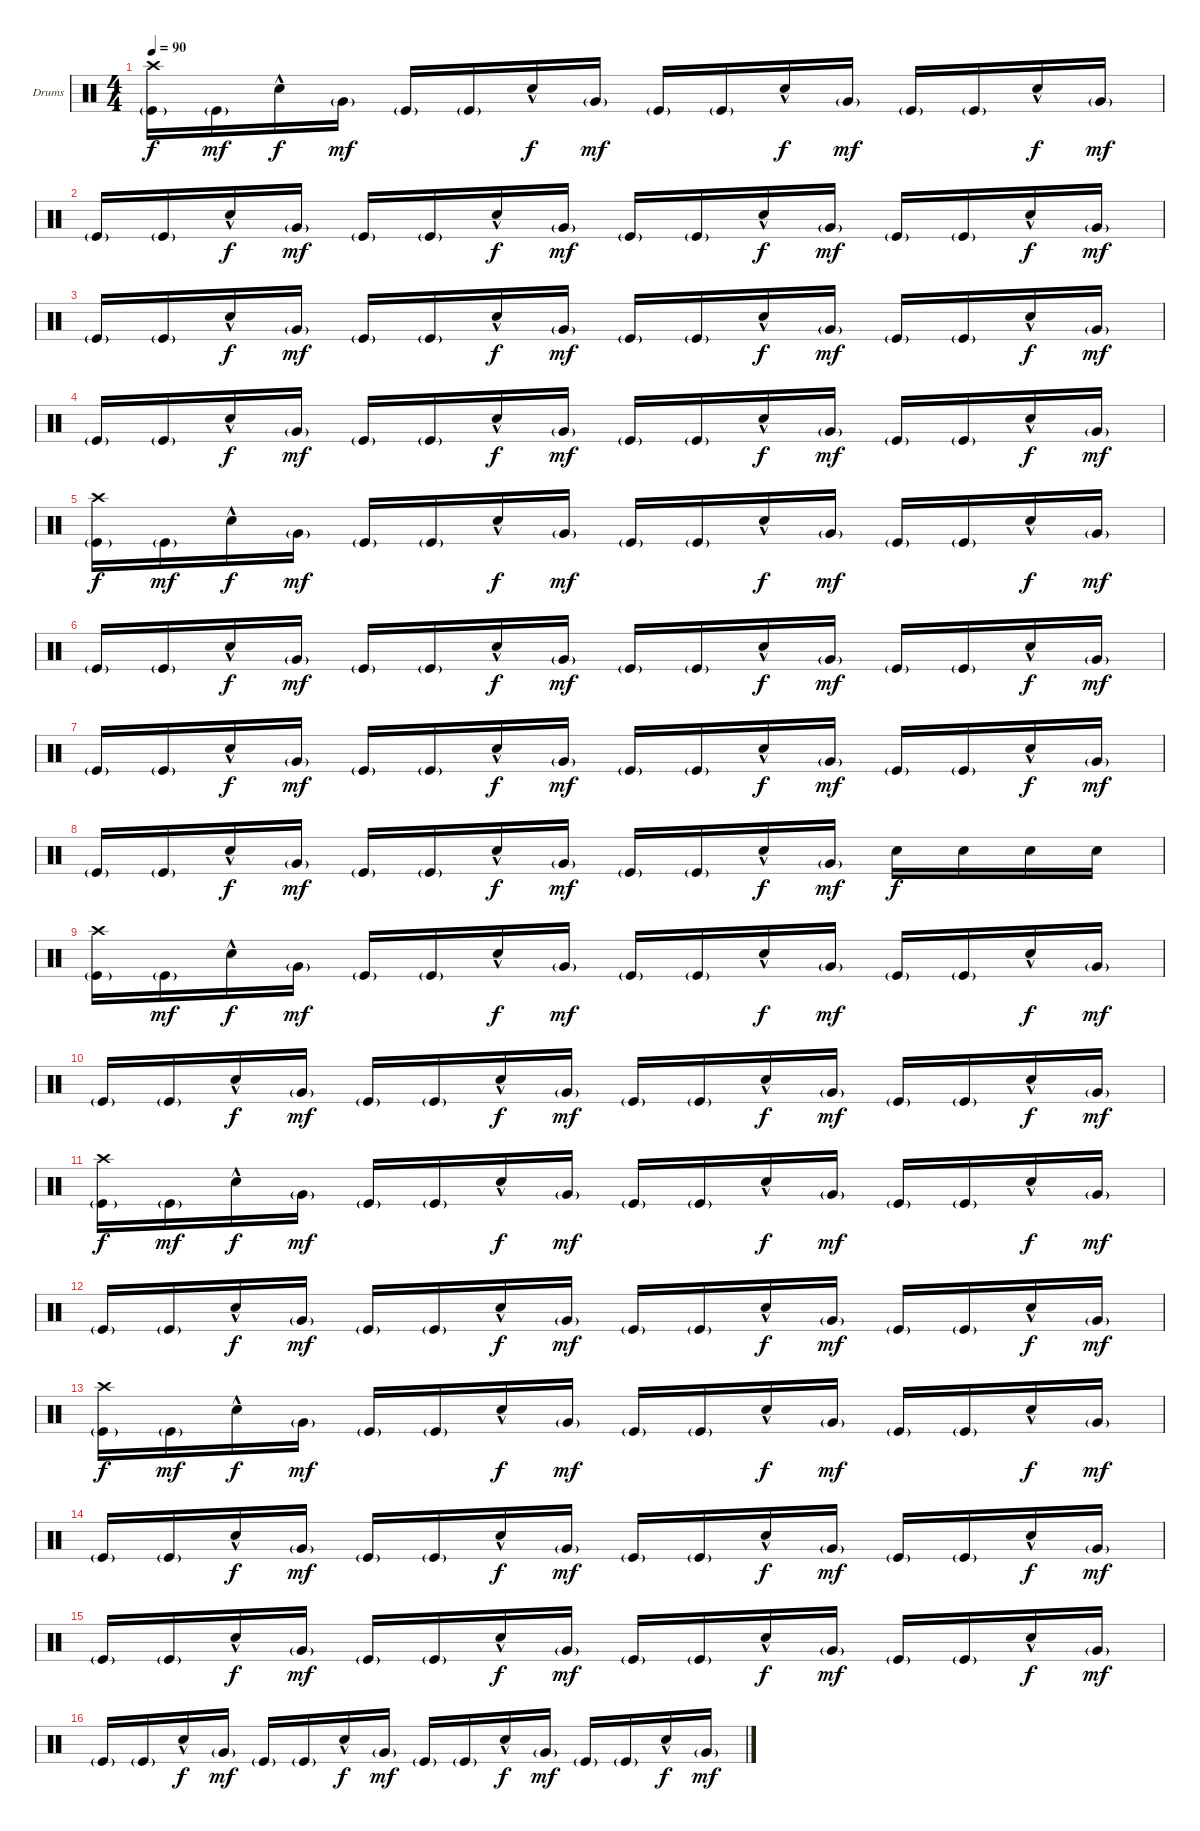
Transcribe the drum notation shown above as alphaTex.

\defaultSystemsLayout 4
\bracketExtendMode groupsimilarinstruments
\firstSystemTrackNameOrientation horizontal
\otherSystemsTrackNameOrientation horizontal
\track ("Drums" "Drums") {instrument percussion}
\staff {score}
\articulation defaults
\ts (4 4)
\tempo 90
\clef neutral
\ks c
("Crash high (hit)" "Kick (hit)"{g}).16{dy f} "Kick (hit)"{g}.16{dy mf} "Snare (hit) 2"{hac}.16{dy f} "Very Low Tom (hit)"{g}.16{dy mf} "Kick (hit)"{g}.16 "Kick (hit)"{g}.16 "Snare (hit) 2"{hac}.16{dy f} "Very Low Tom (hit)"{g}.16{dy mf} "Kick (hit)"{g}.16 "Kick (hit)"{g}.16 "Snare (hit) 2"{hac}.16{dy f} "Very Low Tom (hit)"{g}.16{dy mf} "Kick (hit)"{g}.16 "Kick (hit)"{g}.16 "Snare (hit) 2"{hac}.16{dy f} "Very Low Tom (hit)"{g}.16{dy mf} |
"Kick (hit)"{g}.16 "Kick (hit)"{g}.16 "Snare (hit) 2"{hac}.16{dy f} "Very Low Tom (hit)"{g}.16{dy mf} "Kick (hit)"{g}.16 "Kick (hit)"{g}.16 "Snare (hit) 2"{hac}.16{dy f} "Very Low Tom (hit)"{g}.16{dy mf} "Kick (hit)"{g}.16 "Kick (hit)"{g}.16 "Snare (hit) 2"{hac}.16{dy f} "Very Low Tom (hit)"{g}.16{dy mf} "Kick (hit)"{g}.16 "Kick (hit)"{g}.16 "Snare (hit) 2"{hac}.16{dy f} "Very Low Tom (hit)"{g}.16{dy mf} |
"Kick (hit)"{g}.16 "Kick (hit)"{g}.16 "Snare (hit) 2"{hac}.16{dy f} "Very Low Tom (hit)"{g}.16{dy mf} "Kick (hit)"{g}.16 "Kick (hit)"{g}.16 "Snare (hit) 2"{hac}.16{dy f} "Very Low Tom (hit)"{g}.16{dy mf} "Kick (hit)"{g}.16 "Kick (hit)"{g}.16 "Snare (hit) 2"{hac}.16{dy f} "Very Low Tom (hit)"{g}.16{dy mf} "Kick (hit)"{g}.16 "Kick (hit)"{g}.16 "Snare (hit) 2"{hac}.16{dy f} "Very Low Tom (hit)"{g}.16{dy mf} |
"Kick (hit)"{g}.16 "Kick (hit)"{g}.16 "Snare (hit) 2"{hac}.16{dy f} "Very Low Tom (hit)"{g}.16{dy mf} "Kick (hit)"{g}.16 "Kick (hit)"{g}.16 "Snare (hit) 2"{hac}.16{dy f} "Very Low Tom (hit)"{g}.16{dy mf} "Kick (hit)"{g}.16 "Kick (hit)"{g}.16 "Snare (hit) 2"{hac}.16{dy f} "Very Low Tom (hit)"{g}.16{dy mf} "Kick (hit)"{g}.16 "Kick (hit)"{g}.16 "Snare (hit) 2"{hac}.16{dy f} "Very Low Tom (hit)"{g}.16{dy mf} |
("Crash high (hit)" "Kick (hit)"{g}).16{dy f} "Kick (hit)"{g}.16{dy mf} "Snare (hit) 2"{hac}.16{dy f} "Very Low Tom (hit)"{g}.16{dy mf} "Kick (hit)"{g}.16 "Kick (hit)"{g}.16 "Snare (hit) 2"{hac}.16{dy f} "Very Low Tom (hit)"{g}.16{dy mf} "Kick (hit)"{g}.16 "Kick (hit)"{g}.16 "Snare (hit) 2"{hac}.16{dy f} "Very Low Tom (hit)"{g}.16{dy mf} "Kick (hit)"{g}.16 "Kick (hit)"{g}.16 "Snare (hit) 2"{hac}.16{dy f} "Very Low Tom (hit)"{g}.16{dy mf} |
"Kick (hit)"{g}.16 "Kick (hit)"{g}.16 "Snare (hit) 2"{hac}.16{dy f} "Very Low Tom (hit)"{g}.16{dy mf} "Kick (hit)"{g}.16 "Kick (hit)"{g}.16 "Snare (hit) 2"{hac}.16{dy f} "Very Low Tom (hit)"{g}.16{dy mf} "Kick (hit)"{g}.16 "Kick (hit)"{g}.16 "Snare (hit) 2"{hac}.16{dy f} "Very Low Tom (hit)"{g}.16{dy mf} "Kick (hit)"{g}.16 "Kick (hit)"{g}.16 "Snare (hit) 2"{hac}.16{dy f} "Very Low Tom (hit)"{g}.16{dy mf} |
"Kick (hit)"{g}.16 "Kick (hit)"{g}.16 "Snare (hit) 2"{hac}.16{dy f} "Very Low Tom (hit)"{g}.16{dy mf} "Kick (hit)"{g}.16 "Kick (hit)"{g}.16 "Snare (hit) 2"{hac}.16{dy f} "Very Low Tom (hit)"{g}.16{dy mf} "Kick (hit)"{g}.16 "Kick (hit)"{g}.16 "Snare (hit) 2"{hac}.16{dy f} "Very Low Tom (hit)"{g}.16{dy mf} "Kick (hit)"{g}.16 "Kick (hit)"{g}.16 "Snare (hit) 2"{hac}.16{dy f} "Very Low Tom (hit)"{g}.16{dy mf} |
"Kick (hit)"{g}.16 "Kick (hit)"{g}.16 "Snare (hit) 2"{hac}.16{dy f} "Very Low Tom (hit)"{g}.16{dy mf} "Kick (hit)"{g}.16 "Kick (hit)"{g}.16 "Snare (hit) 2"{hac}.16{dy f} "Very Low Tom (hit)"{g}.16{dy mf} "Kick (hit)"{g}.16 "Kick (hit)"{g}.16 "Snare (hit) 2"{hac}.16{dy f} "Very Low Tom (hit)"{g}.16{dy mf} "Snare (hit) 2".16{dy f} "Snare (hit) 2".16 "Snare (hit) 2".16 "Snare (hit) 2".16 |
("Crash high (hit)" "Kick (hit)"{g}).16 "Kick (hit)"{g}.16{dy mf} "Snare (hit) 2"{hac}.16{dy f} "Very Low Tom (hit)"{g}.16{dy mf} "Kick (hit)"{g}.16 "Kick (hit)"{g}.16 "Snare (hit) 2"{hac}.16{dy f} "Very Low Tom (hit)"{g}.16{dy mf} "Kick (hit)"{g}.16 "Kick (hit)"{g}.16 "Snare (hit) 2"{hac}.16{dy f} "Very Low Tom (hit)"{g}.16{dy mf} "Kick (hit)"{g}.16 "Kick (hit)"{g}.16 "Snare (hit) 2"{hac}.16{dy f} "Very Low Tom (hit)"{g}.16{dy mf} |
"Kick (hit)"{g}.16 "Kick (hit)"{g}.16 "Snare (hit) 2"{hac}.16{dy f} "Very Low Tom (hit)"{g}.16{dy mf} "Kick (hit)"{g}.16 "Kick (hit)"{g}.16 "Snare (hit) 2"{hac}.16{dy f} "Very Low Tom (hit)"{g}.16{dy mf} "Kick (hit)"{g}.16 "Kick (hit)"{g}.16 "Snare (hit) 2"{hac}.16{dy f} "Very Low Tom (hit)"{g}.16{dy mf} "Kick (hit)"{g}.16 "Kick (hit)"{g}.16 "Snare (hit) 2"{hac}.16{dy f} "Very Low Tom (hit)"{g}.16{dy mf} |
("Crash high (hit)" "Kick (hit)"{g}).16{dy f} "Kick (hit)"{g}.16{dy mf} "Snare (hit) 2"{hac}.16{dy f} "Very Low Tom (hit)"{g}.16{dy mf} "Kick (hit)"{g}.16 "Kick (hit)"{g}.16 "Snare (hit) 2"{hac}.16{dy f} "Very Low Tom (hit)"{g}.16{dy mf} "Kick (hit)"{g}.16 "Kick (hit)"{g}.16 "Snare (hit) 2"{hac}.16{dy f} "Very Low Tom (hit)"{g}.16{dy mf} "Kick (hit)"{g}.16 "Kick (hit)"{g}.16 "Snare (hit) 2"{hac}.16{dy f} "Very Low Tom (hit)"{g}.16{dy mf} |
"Kick (hit)"{g}.16 "Kick (hit)"{g}.16 "Snare (hit) 2"{hac}.16{dy f} "Very Low Tom (hit)"{g}.16{dy mf} "Kick (hit)"{g}.16 "Kick (hit)"{g}.16 "Snare (hit) 2"{hac}.16{dy f} "Very Low Tom (hit)"{g}.16{dy mf} "Kick (hit)"{g}.16 "Kick (hit)"{g}.16 "Snare (hit) 2"{hac}.16{dy f} "Very Low Tom (hit)"{g}.16{dy mf} "Kick (hit)"{g}.16 "Kick (hit)"{g}.16 "Snare (hit) 2"{hac}.16{dy f} "Very Low Tom (hit)"{g}.16{dy mf} |
("Crash high (hit)" "Kick (hit)"{g}).16{dy f} "Kick (hit)"{g}.16{dy mf} "Snare (hit) 2"{hac}.16{dy f} "Very Low Tom (hit)"{g}.16{dy mf} "Kick (hit)"{g}.16 "Kick (hit)"{g}.16 "Snare (hit) 2"{hac}.16{dy f} "Very Low Tom (hit)"{g}.16{dy mf} "Kick (hit)"{g}.16 "Kick (hit)"{g}.16 "Snare (hit) 2"{hac}.16{dy f} "Very Low Tom (hit)"{g}.16{dy mf} "Kick (hit)"{g}.16 "Kick (hit)"{g}.16 "Snare (hit) 2"{hac}.16{dy f} "Very Low Tom (hit)"{g}.16{dy mf} |
"Kick (hit)"{g}.16 "Kick (hit)"{g}.16 "Snare (hit) 2"{hac}.16{dy f} "Very Low Tom (hit)"{g}.16{dy mf} "Kick (hit)"{g}.16 "Kick (hit)"{g}.16 "Snare (hit) 2"{hac}.16{dy f} "Very Low Tom (hit)"{g}.16{dy mf} "Kick (hit)"{g}.16 "Kick (hit)"{g}.16 "Snare (hit) 2"{hac}.16{dy f} "Very Low Tom (hit)"{g}.16{dy mf} "Kick (hit)"{g}.16 "Kick (hit)"{g}.16 "Snare (hit) 2"{hac}.16{dy f} "Very Low Tom (hit)"{g}.16{dy mf} |
"Kick (hit)"{g}.16 "Kick (hit)"{g}.16 "Snare (hit) 2"{hac}.16{dy f} "Very Low Tom (hit)"{g}.16{dy mf} "Kick (hit)"{g}.16 "Kick (hit)"{g}.16 "Snare (hit) 2"{hac}.16{dy f} "Very Low Tom (hit)"{g}.16{dy mf} "Kick (hit)"{g}.16 "Kick (hit)"{g}.16 "Snare (hit) 2"{hac}.16{dy f} "Very Low Tom (hit)"{g}.16{dy mf} "Kick (hit)"{g}.16 "Kick (hit)"{g}.16 "Snare (hit) 2"{hac}.16{dy f} "Very Low Tom (hit)"{g}.16{dy mf} |
"Kick (hit)"{g}.16 "Kick (hit)"{g}.16 "Snare (hit) 2"{hac}.16{dy f} "Very Low Tom (hit)"{g}.16{dy mf} "Kick (hit)"{g}.16 "Kick (hit)"{g}.16 "Snare (hit) 2"{hac}.16{dy f} "Very Low Tom (hit)"{g}.16{dy mf} "Kick (hit)"{g}.16 "Kick (hit)"{g}.16 "Snare (hit) 2"{hac}.16{dy f} "Very Low Tom (hit)"{g}.16{dy mf} "Kick (hit)"{g}.16 "Kick (hit)"{g}.16 "Snare (hit) 2"{hac}.16{dy f} "Very Low Tom (hit)"{g}.16{dy mf}
